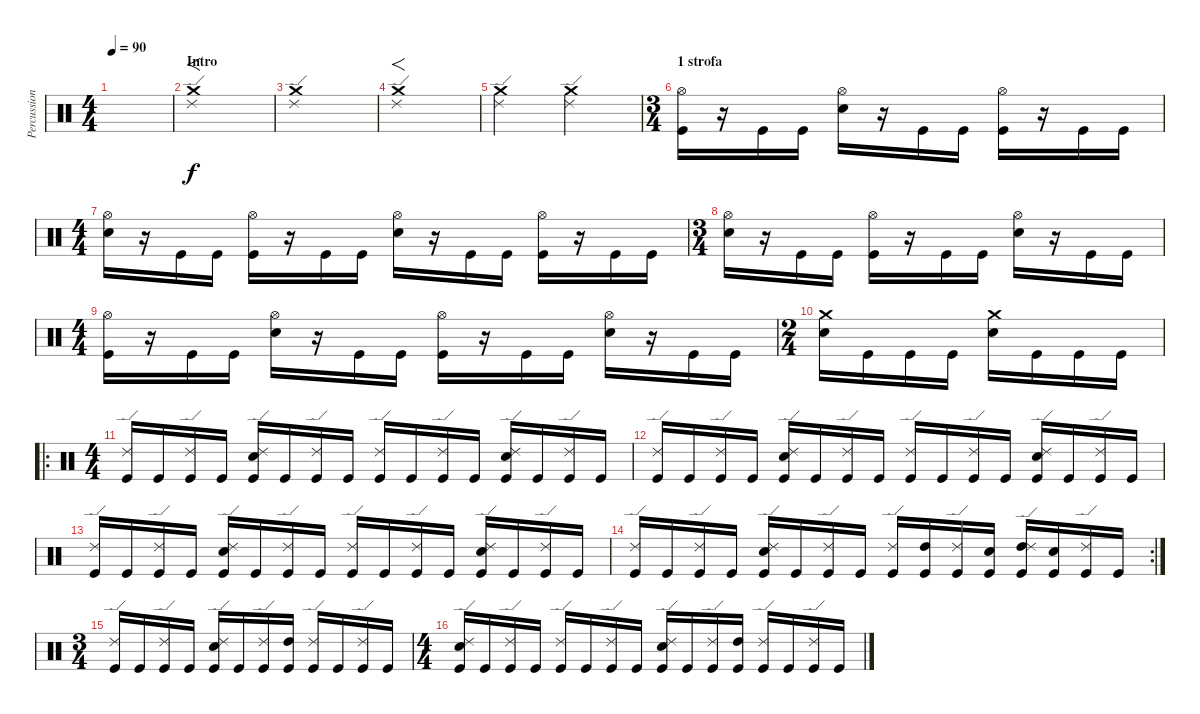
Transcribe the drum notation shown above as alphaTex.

\track ("Percussioni" "Percussion") {instrument percussion}
\staff {score}
\articulation defaults
\ts (4 4)
\tempo 90
\clef neutral
\ks c
|
\section ("" "Intro")
("Ride (edge) 2" "Crash medium (hit)").1{f volume 15} |
("Ride (edge) 2" "Crash medium (hit)").1{volume 7} |
("Ride (edge) 2" "Crash medium (hit)").1{f volume 15} |
("Ride (edge) 2" "Crash medium (hit)").2{volume 8} ("Ride (edge) 2" "Crash medium (hit)").2 |
\ts (3 4)
\section ("" "1 strofa")
("Kick (hit)" "Hi-Hat (open)").16{volume 15} r.16 "Kick (hit)".16 "Kick (hit)".16 ("Snare (hit) 2" "Hi-Hat (open)").16 r.16 "Kick (hit)".16 "Kick (hit)".16 ("Kick (hit)" "Hi-Hat (open)").16 r.16 "Kick (hit)".16 "Kick (hit)".16 |
\ts (4 4)
("Snare (hit) 2" "Hi-Hat (open)").16 r.16 "Kick (hit)".16 "Kick (hit)".16 ("Kick (hit)" "Hi-Hat (open)").16 r.16 "Kick (hit)".16 "Kick (hit)".16 ("Snare (hit) 2" "Hi-Hat (open)").16 r.16 "Kick (hit)".16 "Kick (hit)".16 ("Kick (hit)" "Hi-Hat (open)").16 r.16 "Kick (hit)".16 "Kick (hit)".16 |
\ts (3 4)
("Snare (hit) 2" "Hi-Hat (open)").16 r.16 "Kick (hit)".16 "Kick (hit)".16 ("Kick (hit)" "Hi-Hat (open)").16 r.16 "Kick (hit)".16 "Kick (hit)".16 ("Snare (hit) 2" "Hi-Hat (open)").16 r.16 "Kick (hit)".16 "Kick (hit)".16 |
\ts (4 4)
("Kick (hit)" "Hi-Hat (open)").16 r.16 "Kick (hit)".16 "Kick (hit)".16 ("Snare (hit) 2" "Hi-Hat (open)").16 r.16 "Kick (hit)".16 "Kick (hit)".16 ("Kick (hit)" "Hi-Hat (open)").16 r.16 "Kick (hit)".16 "Kick (hit)".16 ("Snare (hit) 2" "Hi-Hat (open)").16 r.16 "Kick (hit)".16 "Kick (hit)".16 |
\ts (2 4)
("Snare (hit) 2" "Crash medium (hit)").16 "Kick (hit)".16 "Kick (hit)".16 "Kick (hit)".16 ("Snare (hit) 2" "Crash medium (hit)").16 "Kick (hit)".16 "Kick (hit)".16 "Kick (hit)".16 |
\ro
\ts (4 4)
("Ride (edge) 2" "Kick (hit)").16 "Kick (hit)".16 ("Ride (edge) 2" "Kick (hit)").16 "Kick (hit)".16 ("Snare (hit) 2" "Ride (edge) 2" "Kick (hit)").16 "Kick (hit)".16 ("Ride (edge) 2" "Kick (hit)").16 "Kick (hit)".16 ("Ride (edge) 2" "Kick (hit)").16 "Kick (hit)".16 ("Ride (edge) 2" "Kick (hit)").16 "Kick (hit)".16 ("Snare (hit) 2" "Ride (edge) 2" "Kick (hit)").16 "Kick (hit)".16 ("Ride (edge) 2" "Kick (hit)").16 "Kick (hit)".16 |
("Ride (edge) 2" "Kick (hit)").16 "Kick (hit)".16 ("Ride (edge) 2" "Kick (hit)").16 "Kick (hit)".16 ("Snare (hit) 2" "Ride (edge) 2" "Kick (hit)").16 "Kick (hit)".16 ("Ride (edge) 2" "Kick (hit)").16 "Kick (hit)".16 ("Ride (edge) 2" "Kick (hit)").16 "Kick (hit)".16 ("Ride (edge) 2" "Kick (hit)").16 "Kick (hit)".16 ("Snare (hit) 2" "Ride (edge) 2" "Kick (hit)").16 "Kick (hit)".16 ("Ride (edge) 2" "Kick (hit)").16 "Kick (hit)".16 |
("Ride (edge) 2" "Kick (hit)").16 "Kick (hit)".16 ("Ride (edge) 2" "Kick (hit)").16 "Kick (hit)".16 ("Snare (hit) 2" "Ride (edge) 2" "Kick (hit)").16 "Kick (hit)".16 ("Ride (edge) 2" "Kick (hit)").16 "Kick (hit)".16 ("Ride (edge) 2" "Kick (hit)").16 "Kick (hit)".16 ("Ride (edge) 2" "Kick (hit)").16 "Kick (hit)".16 ("Snare (hit) 2" "Ride (edge) 2" "Kick (hit)").16 "Kick (hit)".16 ("Ride (edge) 2" "Kick (hit)").16 "Kick (hit)".16 |
\rc 2
("Ride (edge) 2" "Kick (hit)").16 "Kick (hit)".16 ("Ride (edge) 2" "Kick (hit)").16 "Kick (hit)".16 ("Snare (hit) 2" "Ride (edge) 2" "Kick (hit)").16 "Kick (hit)".16 ("Ride (edge) 2" "Kick (hit)").16 "Kick (hit)".16 ("Ride (edge) 2" "Kick (hit)").16 ("High Tom (hit)" "Kick (hit)").16 ("Ride (edge) 2" "Kick (hit)").16 ("Snare (hit) 2" "Kick (hit)").16 ("High Tom (hit)" "Ride (edge) 2" "Kick (hit)").16 ("Snare (hit) 2" "Kick (hit)").16 ("Ride (edge) 2" "Kick (hit)").16 "Kick (hit)".16 |
\ts (3 4)
("Ride (edge) 2" "Kick (hit)").16 "Kick (hit)".16 ("Ride (edge) 2" "Kick (hit)").16 "Kick (hit)".16 ("Snare (hit) 2" "Ride (edge) 2" "Kick (hit)").16 "Kick (hit)".16 ("Ride (edge) 2" "Kick (hit)").16 ("High Tom (hit)" "Kick (hit)").16 ("Ride (edge) 2" "Kick (hit)").16 "Kick (hit)".16 ("Ride (edge) 2" "Kick (hit)").16 "Kick (hit)".16 |
\ts (4 4)
("Snare (hit) 2" "Ride (edge) 2" "Kick (hit)").16 "Kick (hit)".16 ("Ride (edge) 2" "Kick (hit)").16 "Kick (hit)".16 ("Ride (edge) 2" "Kick (hit)").16 "Kick (hit)".16 ("Ride (edge) 2" "Kick (hit)").16 "Kick (hit)".16 ("Snare (hit) 2" "Ride (edge) 2" "Kick (hit)").16 "Kick (hit)".16 ("Ride (edge) 2" "Kick (hit)").16 ("High Tom (hit)" "Kick (hit)").16 ("Ride (edge) 2" "Kick (hit)").16 "Kick (hit)".16 ("Ride (edge) 2" "Kick (hit)").16 "Kick (hit)".16
